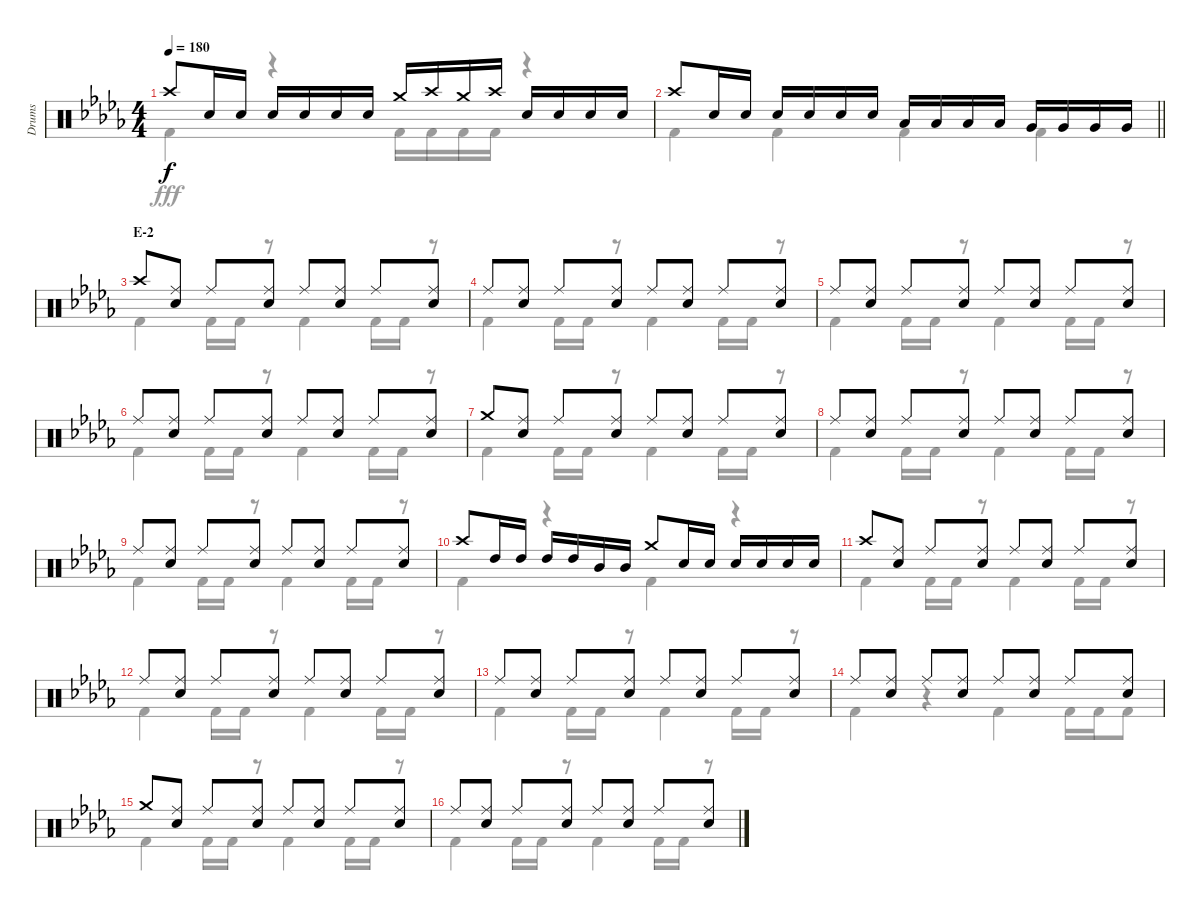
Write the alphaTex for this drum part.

\track ("Drums" "Drums") {instrument percussion}
\staff {score}
\articulation defaults
\voice
\ts (4 4)
\tempo 180
\clef neutral
\ks db "Crash high (hit)".8{dy f} "Snare (hit) 2".16 "Snare (hit) 2".16 "Snare (hit) 2".16 "Snare (hit) 2".16 "Snare (hit) 2".16 "Snare (hit) 2".16 "Crash medium (hit)".16 "Crash high (hit)".16 "Crash medium (hit)".16 "Crash high (hit)".16 "Snare (hit) 2".16 "Snare (hit) 2".16 "Snare (hit) 2".16 "Snare (hit) 2".16
|
\barLineRight lightlight "Crash high (hit)".8 "Snare (hit) 2".16 "Snare (hit) 2".16 "Snare (hit) 2".16 "Snare (hit) 2".16 "Snare (hit) 2".16 "Snare (hit) 2".16 "Low Tom (hit)".16 "Low Tom (hit)".16 "Low Tom (hit)".16 "Low Tom (hit)".16 "Very Low Tom (hit)".16 "Very Low Tom (hit)".16 "Very Low Tom (hit)".16 "Very Low Tom (hit)".16
|
\section ("" "E-2")
"Crash high (hit)".8 ("Ride (middle)" "Snare (hit) 2").8 "Ride (middle)".8 ("Ride (middle)" "Snare (hit) 2").8 "Ride (middle)".8 ("Ride (middle)" "Snare (hit) 2").8 "Ride (middle)".8 ("Ride (middle)" "Snare (hit) 2").8 |
"Ride (middle)".8 ("Ride (middle)" "Snare (hit) 2").8 "Ride (middle)".8 ("Ride (middle)" "Snare (hit) 2").8 "Ride (middle)".8 ("Ride (middle)" "Snare (hit) 2").8 "Ride (middle)".8 ("Ride (middle)" "Snare (hit) 2").8 |
"Ride (middle)".8 ("Ride (middle)" "Snare (hit) 2").8 "Ride (middle)".8 ("Ride (middle)" "Snare (hit) 2").8 "Ride (middle)".8 ("Ride (middle)" "Snare (hit) 2").8 "Ride (middle)".8 ("Ride (middle)" "Snare (hit) 2").8 |
"Ride (middle)".8 ("Ride (middle)" "Snare (hit) 2").8 "Ride (middle)".8 ("Ride (middle)" "Snare (hit) 2").8 "Ride (middle)".8 ("Ride (middle)" "Snare (hit) 2").8 "Ride (middle)".8 ("Ride (middle)" "Snare (hit) 2").8 |
"Crash medium (hit)".8 ("Ride (middle)" "Snare (hit) 2").8 "Ride (middle)".8 ("Ride (middle)" "Snare (hit) 2").8 "Ride (middle)".8 ("Ride (middle)" "Snare (hit) 2").8 "Ride (middle)".8 ("Ride (middle)" "Snare (hit) 2").8 |
"Ride (middle)".8 ("Ride (middle)" "Snare (hit) 2").8 "Ride (middle)".8 ("Ride (middle)" "Snare (hit) 2").8 "Ride (middle)".8 ("Ride (middle)" "Snare (hit) 2").8 "Ride (middle)".8 ("Ride (middle)" "Snare (hit) 2").8 |
"Ride (middle)".8 ("Ride (middle)" "Snare (hit) 2").8 "Ride (middle)".8 ("Ride (middle)" "Snare (hit) 2").8 "Ride (middle)".8 ("Ride (middle)" "Snare (hit) 2").8 "Ride (middle)".8 ("Ride (middle)" "Snare (hit) 2").8 |
"Crash high (hit)".8 "High Tom (hit)".16 "High Tom (hit)".16 "High Tom (hit)".16 "High Tom (hit)".16 "Mid Tom (hit)".16 "Mid Tom (hit)".16 "Crash medium (hit)".8 "Snare (hit) 2".16 "Snare (hit) 2".16 "Snare (hit) 2".16 "Snare (hit) 2".16 "Snare (hit) 2".16 "Snare (hit) 2".16 |
"Crash high (hit)".8 ("Ride (middle)" "Snare (hit) 2").8 "Ride (middle)".8 ("Ride (middle)" "Snare (hit) 2").8 "Ride (middle)".8 ("Ride (middle)" "Snare (hit) 2").8 "Ride (middle)".8 ("Ride (middle)" "Snare (hit) 2").8 |
"Ride (middle)".8 ("Ride (middle)" "Snare (hit) 2").8 "Ride (middle)".8 ("Ride (middle)" "Snare (hit) 2").8 "Ride (middle)".8 ("Ride (middle)" "Snare (hit) 2").8 "Ride (middle)".8 ("Ride (middle)" "Snare (hit) 2").8 |
"Ride (middle)".8 ("Ride (middle)" "Snare (hit) 2").8 "Ride (middle)".8 ("Ride (middle)" "Snare (hit) 2").8 "Ride (middle)".8 ("Ride (middle)" "Snare (hit) 2").8 "Ride (middle)".8 ("Ride (middle)" "Snare (hit) 2").8 |
"Ride (middle)".8 ("Ride (middle)" "Snare (hit) 2").8 "Ride (middle)".8 ("Ride (middle)" "Snare (hit) 2").8 "Ride (middle)".8 ("Ride (middle)" "Snare (hit) 2").8 "Ride (middle)".8 ("Ride (middle)" "Snare (hit) 2").8 |
"Crash medium (hit)".8 ("Ride (middle)" "Snare (hit) 2").8 "Ride (middle)".8 ("Ride (middle)" "Snare (hit) 2").8 "Ride (middle)".8 ("Ride (middle)" "Snare (hit) 2").8 "Ride (middle)".8 ("Ride (middle)" "Snare (hit) 2").8 |
"Ride (middle)".8 ("Ride (middle)" "Snare (hit) 2").8 "Ride (middle)".8 ("Ride (middle)" "Snare (hit) 2").8 "Ride (middle)".8 ("Ride (middle)" "Snare (hit) 2").8 "Ride (middle)".8 ("Ride (middle)" "Snare (hit) 2").8
\voice
\clef neutral
\ottava regular
\simile none
\ks db "Kick (hit) 2".4{dy fff}
r.4 "Kick (hit) 2".16 "Kick (hit) 2".16 "Kick (hit) 2".16 "Kick (hit) 2".16 r.4 |
\barLineRight lightlight "Kick (hit) 2".4 "Kick (hit) 2".4 "Kick (hit) 2".4 "Kick (hit) 2".4
|
"Kick (hit) 2".4 "Kick (hit) 2".16 "Kick (hit) 2".16 r.8 "Kick (hit) 2".4 "Kick (hit) 2".16 "Kick (hit) 2".16 r.8 |
"Kick (hit) 2".4 "Kick (hit) 2".16 "Kick (hit) 2".16 r.8 "Kick (hit) 2".4 "Kick (hit) 2".16 "Kick (hit) 2".16 r.8 |
"Kick (hit) 2".4 "Kick (hit) 2".16 "Kick (hit) 2".16 r.8 "Kick (hit) 2".4 "Kick (hit) 2".16 "Kick (hit) 2".16 r.8 |
"Kick (hit) 2".4 "Kick (hit) 2".16 "Kick (hit) 2".16 r.8 "Kick (hit) 2".4 "Kick (hit) 2".16 "Kick (hit) 2".16 r.8 |
"Kick (hit) 2".4 "Kick (hit) 2".16 "Kick (hit) 2".16 r.8 "Kick (hit) 2".4 "Kick (hit) 2".16 "Kick (hit) 2".16 r.8 |
"Kick (hit) 2".4 "Kick (hit) 2".16 "Kick (hit) 2".16 r.8 "Kick (hit) 2".4 "Kick (hit) 2".16 "Kick (hit) 2".16 r.8 |
"Kick (hit) 2".4 "Kick (hit) 2".16 "Kick (hit) 2".16 r.8 "Kick (hit) 2".4 "Kick (hit) 2".16 "Kick (hit) 2".16 r.8 |
"Kick (hit) 2".4 r.4 "Kick (hit) 2".4 r.4 |
"Kick (hit) 2".4 "Kick (hit) 2".16 "Kick (hit) 2".16 r.8 "Kick (hit) 2".4 "Kick (hit) 2".16 "Kick (hit) 2".16 r.8 |
"Kick (hit) 2".4 "Kick (hit) 2".16 "Kick (hit) 2".16 r.8 "Kick (hit) 2".4 "Kick (hit) 2".16 "Kick (hit) 2".16 r.8 |
"Kick (hit) 2".4 "Kick (hit) 2".16 "Kick (hit) 2".16 r.8 "Kick (hit) 2".4 "Kick (hit) 2".16 "Kick (hit) 2".16 r.8 |
"Kick (hit) 2".4 r.4 "Kick (hit) 2".4 "Kick (hit) 2".16 "Kick (hit) 2".16 "Kick (hit) 2".8 |
"Kick (hit) 2".4 "Kick (hit) 2".16 "Kick (hit) 2".16 r.8 "Kick (hit) 2".4 "Kick (hit) 2".16 "Kick (hit) 2".16 r.8 |
"Kick (hit) 2".4 "Kick (hit) 2".16 "Kick (hit) 2".16 r.8 "Kick (hit) 2".4 "Kick (hit) 2".16 "Kick (hit) 2".16 r.8
